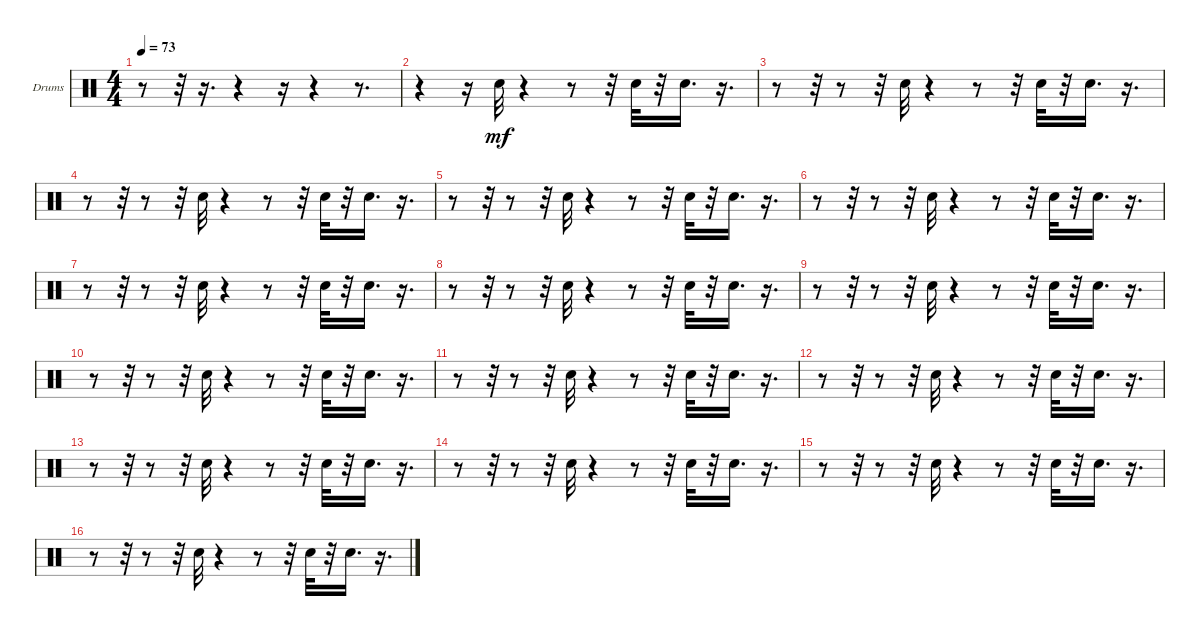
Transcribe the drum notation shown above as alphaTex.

\bracketExtendMode groupsimilarinstruments
\firstSystemTrackNameOrientation horizontal
\otherSystemsTrackNameOrientation horizontal
\track ("snare" "Drums") {instrument percussion}
\staff {score}
\articulation defaults
\ts (4 4)
\tempo 73
\clef neutral
\ks c
r.8{dy mf} r.32 r.16{d} r.4 r.16 r.4 r.8{d} |
r.4 r.16 "Snare (hit) 2".32 r.4 r.8 r.32 "Snare (hit) 2".32 r.32 "Snare (hit) 2".16{d} r.16{d} |
r.8 r.32 r.8 r.32 "Snare (hit) 2".32 r.4 r.8 r.32 "Snare (hit) 2".32 r.32 "Snare (hit) 2".16{d} r.16{d} |
r.8 r.32 r.8 r.32 "Snare (hit) 2".32 r.4 r.8 r.32 "Snare (hit) 2".32 r.32 "Snare (hit) 2".16{d} r.16{d} |
r.8 r.32 r.8 r.32 "Snare (hit) 2".32 r.4 r.8 r.32 "Snare (hit) 2".32 r.32 "Snare (hit) 2".16{d} r.16{d} |
r.8 r.32 r.8 r.32 "Snare (hit) 2".32 r.4 r.8 r.32 "Snare (hit) 2".32 r.32 "Snare (hit) 2".16{d} r.16{d} |
r.8 r.32 r.8 r.32 "Snare (hit) 2".32 r.4 r.8 r.32 "Snare (hit) 2".32 r.32 "Snare (hit) 2".16{d} r.16{d} |
r.8 r.32 r.8 r.32 "Snare (hit) 2".32 r.4 r.8 r.32 "Snare (hit) 2".32 r.32 "Snare (hit) 2".16{d} r.16{d} |
r.8 r.32 r.8 r.32 "Snare (hit) 2".32 r.4 r.8 r.32 "Snare (hit) 2".32 r.32 "Snare (hit) 2".16{d} r.16{d} |
r.8 r.32 r.8 r.32 "Snare (hit) 2".32 r.4 r.8 r.32 "Snare (hit) 2".32 r.32 "Snare (hit) 2".16{d} r.16{d} |
r.8 r.32 r.8 r.32 "Snare (hit) 2".32 r.4 r.8 r.32 "Snare (hit) 2".32 r.32 "Snare (hit) 2".16{d} r.16{d} |
r.8 r.32 r.8 r.32 "Snare (hit) 2".32 r.4 r.8 r.32 "Snare (hit) 2".32 r.32 "Snare (hit) 2".16{d} r.16{d} |
r.8 r.32 r.8 r.32 "Snare (hit) 2".32 r.4 r.8 r.32 "Snare (hit) 2".32 r.32 "Snare (hit) 2".16{d} r.16{d} |
r.8 r.32 r.8 r.32 "Snare (hit) 2".32 r.4 r.8 r.32 "Snare (hit) 2".32 r.32 "Snare (hit) 2".16{d} r.16{d} |
r.8 r.32 r.8 r.32 "Snare (hit) 2".32 r.4 r.8 r.32 "Snare (hit) 2".32 r.32 "Snare (hit) 2".16{d} r.16{d} |
r.8 r.32 r.8 r.32 "Snare (hit) 2".32 r.4 r.8 r.32 "Snare (hit) 2".32 r.32 "Snare (hit) 2".16{d} r.16{d}
